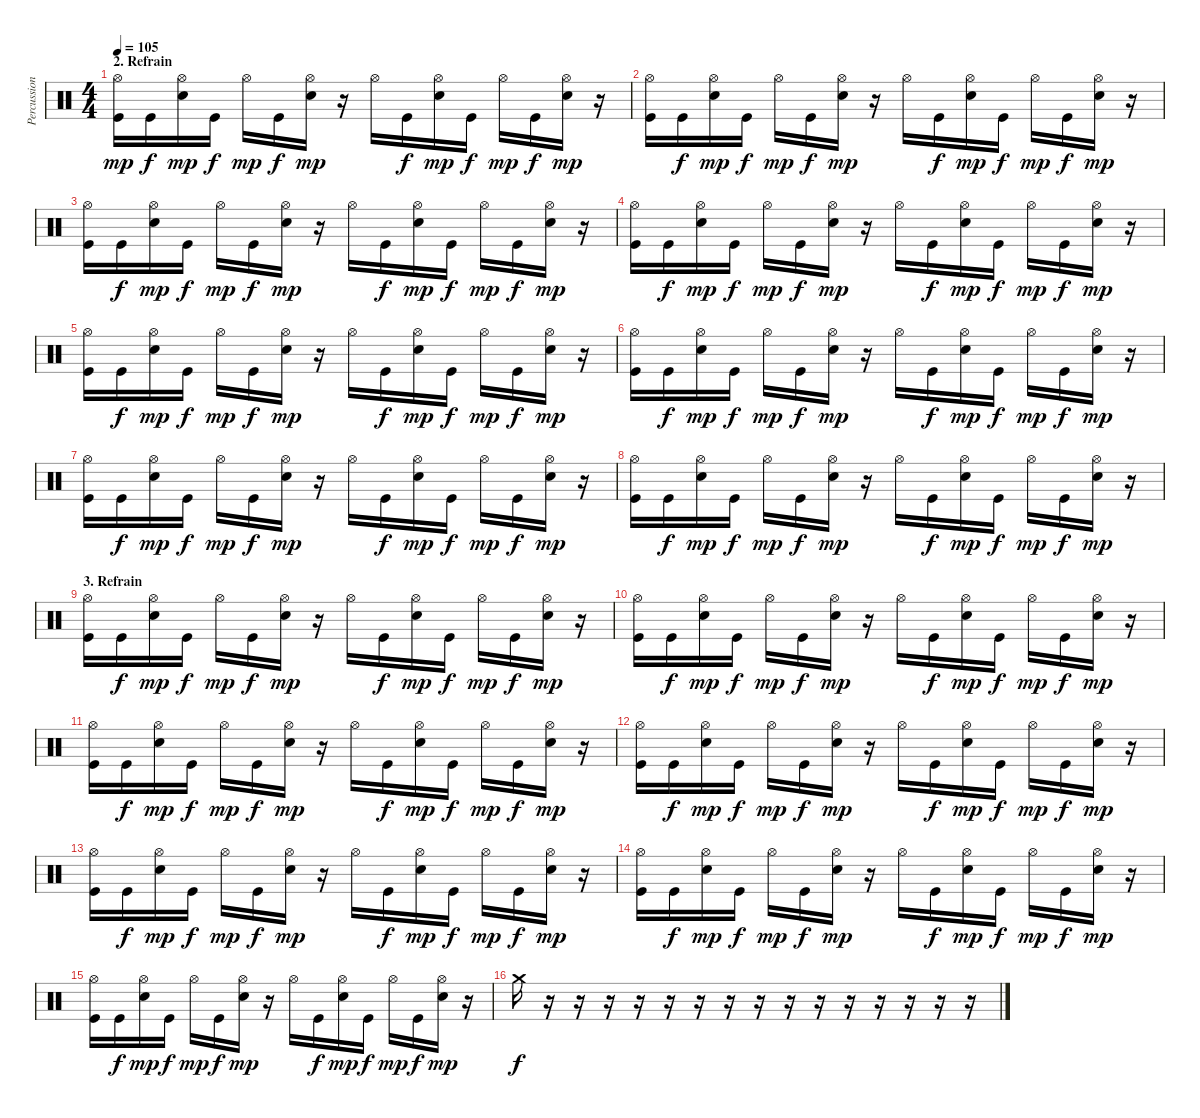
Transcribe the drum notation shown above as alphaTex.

\track ("Percussion" "Percussion") {instrument percussion}
\staff {score}
\articulation defaults
\ts (4 4)
\section ("" "2. Refrain")
\tempo 105
\clef neutral
\ks c
("Hi-Hat (open)" "Kick (hit)").16{dy mp} "Kick (hit)".16{dy f} ("Hi-Hat (open)" "Snare (hit) 2").16{dy mp} "Kick (hit)".16{dy f} "Hi-Hat (open)".16{dy mp} "Kick (hit)".16{dy f} ("Hi-Hat (open)" "Snare (hit) 2").16{dy mp} r.16 "Hi-Hat (open)".16 "Kick (hit)".16{dy f} ("Hi-Hat (open)" "Snare (hit) 2").16{dy mp} "Kick (hit)".16{dy f} "Hi-Hat (open)".16{dy mp} "Kick (hit)".16{dy f} ("Hi-Hat (open)" "Snare (hit) 2").16{dy mp} r.16 |
("Hi-Hat (open)" "Kick (hit)").16 "Kick (hit)".16{dy f} ("Hi-Hat (open)" "Snare (hit) 2").16{dy mp} "Kick (hit)".16{dy f} "Hi-Hat (open)".16{dy mp} "Kick (hit)".16{dy f} ("Hi-Hat (open)" "Snare (hit) 2").16{dy mp} r.16 "Hi-Hat (open)".16 "Kick (hit)".16{dy f} ("Hi-Hat (open)" "Snare (hit) 2").16{dy mp} "Kick (hit)".16{dy f} "Hi-Hat (open)".16{dy mp} "Kick (hit)".16{dy f} ("Hi-Hat (open)" "Snare (hit) 2").16{dy mp} r.16 |
("Hi-Hat (open)" "Kick (hit)").16 "Kick (hit)".16{dy f} ("Hi-Hat (open)" "Snare (hit) 2").16{dy mp} "Kick (hit)".16{dy f} "Hi-Hat (open)".16{dy mp} "Kick (hit)".16{dy f} ("Hi-Hat (open)" "Snare (hit) 2").16{dy mp} r.16 "Hi-Hat (open)".16 "Kick (hit)".16{dy f} ("Hi-Hat (open)" "Snare (hit) 2").16{dy mp} "Kick (hit)".16{dy f} "Hi-Hat (open)".16{dy mp} "Kick (hit)".16{dy f} ("Hi-Hat (open)" "Snare (hit) 2").16{dy mp} r.16 |
("Hi-Hat (open)" "Kick (hit)").16 "Kick (hit)".16{dy f} ("Hi-Hat (open)" "Snare (hit) 2").16{dy mp} "Kick (hit)".16{dy f} "Hi-Hat (open)".16{dy mp} "Kick (hit)".16{dy f} ("Hi-Hat (open)" "Snare (hit) 2").16{dy mp} r.16 "Hi-Hat (open)".16 "Kick (hit)".16{dy f} ("Hi-Hat (open)" "Snare (hit) 2").16{dy mp} "Kick (hit)".16{dy f} "Hi-Hat (open)".16{dy mp} "Kick (hit)".16{dy f} ("Hi-Hat (open)" "Snare (hit) 2").16{dy mp} r.16 |
("Hi-Hat (open)" "Kick (hit)").16 "Kick (hit)".16{dy f} ("Hi-Hat (open)" "Snare (hit) 2").16{dy mp} "Kick (hit)".16{dy f} "Hi-Hat (open)".16{dy mp} "Kick (hit)".16{dy f} ("Hi-Hat (open)" "Snare (hit) 2").16{dy mp} r.16 "Hi-Hat (open)".16 "Kick (hit)".16{dy f} ("Hi-Hat (open)" "Snare (hit) 2").16{dy mp} "Kick (hit)".16{dy f} "Hi-Hat (open)".16{dy mp} "Kick (hit)".16{dy f} ("Hi-Hat (open)" "Snare (hit) 2").16{dy mp} r.16 |
("Hi-Hat (open)" "Kick (hit)").16 "Kick (hit)".16{dy f} ("Hi-Hat (open)" "Snare (hit) 2").16{dy mp} "Kick (hit)".16{dy f} "Hi-Hat (open)".16{dy mp} "Kick (hit)".16{dy f} ("Hi-Hat (open)" "Snare (hit) 2").16{dy mp} r.16 "Hi-Hat (open)".16 "Kick (hit)".16{dy f} ("Hi-Hat (open)" "Snare (hit) 2").16{dy mp} "Kick (hit)".16{dy f} "Hi-Hat (open)".16{dy mp} "Kick (hit)".16{dy f} ("Hi-Hat (open)" "Snare (hit) 2").16{dy mp} r.16 |
("Hi-Hat (open)" "Kick (hit)").16 "Kick (hit)".16{dy f} ("Hi-Hat (open)" "Snare (hit) 2").16{dy mp} "Kick (hit)".16{dy f} "Hi-Hat (open)".16{dy mp} "Kick (hit)".16{dy f} ("Hi-Hat (open)" "Snare (hit) 2").16{dy mp} r.16 "Hi-Hat (open)".16 "Kick (hit)".16{dy f} ("Hi-Hat (open)" "Snare (hit) 2").16{dy mp} "Kick (hit)".16{dy f} "Hi-Hat (open)".16{dy mp} "Kick (hit)".16{dy f} ("Hi-Hat (open)" "Snare (hit) 2").16{dy mp} r.16 |
("Hi-Hat (open)" "Kick (hit)").16 "Kick (hit)".16{dy f} ("Hi-Hat (open)" "Snare (hit) 2").16{dy mp} "Kick (hit)".16{dy f} "Hi-Hat (open)".16{dy mp} "Kick (hit)".16{dy f} ("Hi-Hat (open)" "Snare (hit) 2").16{dy mp} r.16 "Hi-Hat (open)".16 "Kick (hit)".16{dy f} ("Hi-Hat (open)" "Snare (hit) 2").16{dy mp} "Kick (hit)".16{dy f} "Hi-Hat (open)".16{dy mp} "Kick (hit)".16{dy f} ("Hi-Hat (open)" "Snare (hit) 2").16{dy mp} r.16 |
\section ("" "3. Refrain")
("Hi-Hat (open)" "Kick (hit)").16 "Kick (hit)".16{dy f} ("Hi-Hat (open)" "Snare (hit) 2").16{dy mp} "Kick (hit)".16{dy f} "Hi-Hat (open)".16{dy mp} "Kick (hit)".16{dy f} ("Hi-Hat (open)" "Snare (hit) 2").16{dy mp} r.16 "Hi-Hat (open)".16 "Kick (hit)".16{dy f} ("Hi-Hat (open)" "Snare (hit) 2").16{dy mp} "Kick (hit)".16{dy f} "Hi-Hat (open)".16{dy mp} "Kick (hit)".16{dy f} ("Hi-Hat (open)" "Snare (hit) 2").16{dy mp} r.16 |
("Hi-Hat (open)" "Kick (hit)").16 "Kick (hit)".16{dy f} ("Hi-Hat (open)" "Snare (hit) 2").16{dy mp} "Kick (hit)".16{dy f} "Hi-Hat (open)".16{dy mp} "Kick (hit)".16{dy f} ("Hi-Hat (open)" "Snare (hit) 2").16{dy mp} r.16 "Hi-Hat (open)".16 "Kick (hit)".16{dy f} ("Hi-Hat (open)" "Snare (hit) 2").16{dy mp} "Kick (hit)".16{dy f} "Hi-Hat (open)".16{dy mp} "Kick (hit)".16{dy f} ("Hi-Hat (open)" "Snare (hit) 2").16{dy mp} r.16 |
("Hi-Hat (open)" "Kick (hit)").16 "Kick (hit)".16{dy f} ("Hi-Hat (open)" "Snare (hit) 2").16{dy mp} "Kick (hit)".16{dy f} "Hi-Hat (open)".16{dy mp} "Kick (hit)".16{dy f} ("Hi-Hat (open)" "Snare (hit) 2").16{dy mp} r.16 "Hi-Hat (open)".16 "Kick (hit)".16{dy f} ("Hi-Hat (open)" "Snare (hit) 2").16{dy mp} "Kick (hit)".16{dy f} "Hi-Hat (open)".16{dy mp} "Kick (hit)".16{dy f} ("Hi-Hat (open)" "Snare (hit) 2").16{dy mp} r.16 |
("Hi-Hat (open)" "Kick (hit)").16 "Kick (hit)".16{dy f} ("Hi-Hat (open)" "Snare (hit) 2").16{dy mp} "Kick (hit)".16{dy f} "Hi-Hat (open)".16{dy mp} "Kick (hit)".16{dy f} ("Hi-Hat (open)" "Snare (hit) 2").16{dy mp} r.16 "Hi-Hat (open)".16 "Kick (hit)".16{dy f} ("Hi-Hat (open)" "Snare (hit) 2").16{dy mp} "Kick (hit)".16{dy f} "Hi-Hat (open)".16{dy mp} "Kick (hit)".16{dy f} ("Hi-Hat (open)" "Snare (hit) 2").16{dy mp} r.16 |
("Hi-Hat (open)" "Kick (hit)").16 "Kick (hit)".16{dy f} ("Hi-Hat (open)" "Snare (hit) 2").16{dy mp} "Kick (hit)".16{dy f} "Hi-Hat (open)".16{dy mp} "Kick (hit)".16{dy f} ("Hi-Hat (open)" "Snare (hit) 2").16{dy mp} r.16 "Hi-Hat (open)".16 "Kick (hit)".16{dy f} ("Hi-Hat (open)" "Snare (hit) 2").16{dy mp} "Kick (hit)".16{dy f} "Hi-Hat (open)".16{dy mp} "Kick (hit)".16{dy f} ("Hi-Hat (open)" "Snare (hit) 2").16{dy mp} r.16 |
("Hi-Hat (open)" "Kick (hit)").16 "Kick (hit)".16{dy f} ("Hi-Hat (open)" "Snare (hit) 2").16{dy mp} "Kick (hit)".16{dy f} "Hi-Hat (open)".16{dy mp} "Kick (hit)".16{dy f} ("Hi-Hat (open)" "Snare (hit) 2").16{dy mp} r.16 "Hi-Hat (open)".16 "Kick (hit)".16{dy f} ("Hi-Hat (open)" "Snare (hit) 2").16{dy mp} "Kick (hit)".16{dy f} "Hi-Hat (open)".16{dy mp} "Kick (hit)".16{dy f} ("Hi-Hat (open)" "Snare (hit) 2").16{dy mp} r.16 |
("Hi-Hat (open)" "Kick (hit)").16 "Kick (hit)".16{dy f} ("Hi-Hat (open)" "Snare (hit) 2").16{dy mp} "Kick (hit)".16{dy f} "Hi-Hat (open)".16{dy mp} "Kick (hit)".16{dy f} ("Hi-Hat (open)" "Snare (hit) 2").16{dy mp} r.16 "Hi-Hat (open)".16 "Kick (hit)".16{dy f} ("Hi-Hat (open)" "Snare (hit) 2").16{dy mp} "Kick (hit)".16{dy f} "Hi-Hat (open)".16{dy mp} "Kick (hit)".16{dy f} ("Hi-Hat (open)" "Snare (hit) 2").16{dy mp} r.16 |
"Crash medium (hit)".16{dy f} r.16 r.16 r.16 r.16 r.16 r.16 r.16 r.16 r.16 r.16 r.16 r.16 r.16 r.16 r.16
